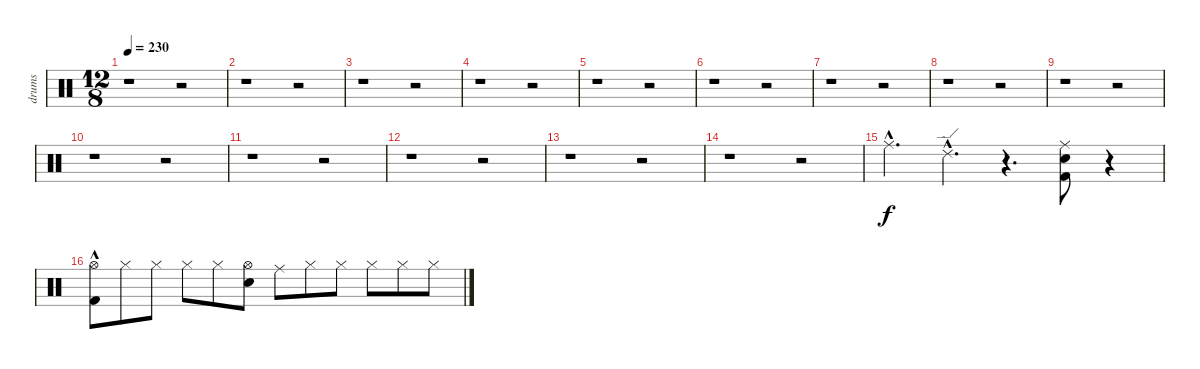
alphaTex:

\track ("drums" "drums") {instrument percussion}
\staff {score}
\articulation defaults
\ts (12 8)
\tempo 230
\clef neutral
\ks c
r.1{dy f} r.2 |
r.1 r.2 |
r.1 r.2 |
r.1 r.2 |
r.1 r.2 |
r.1 r.2 |
r.1 r.2 |
r.1 r.2 |
r.1 r.2 |
r.1 r.2 |
r.1 r.2 |
r.1 r.2 |
r.1 r.2 |
r.1 r.2 |
"Ride (middle)"{hac}.4{d} "Ride (edge) 2"{hac}.4{d} r.4{d} ("Ride (middle)" "Snare (hit) 2" "Kick (hit) 2").8 r.4 |
("Hi-Hat (open)"{hac} "Kick (hit) 2"{hac}).8 "Hi-Hat (closed)".8 "Hi-Hat (closed)".8 "Hi-Hat (closed)".8 "Hi-Hat (closed)".8 ("Snare (hit) 2" "Hi-Hat (open)").8 "Ride (middle)".8 "Hi-Hat (closed)".8 "Hi-Hat (closed)".8 "Hi-Hat (closed)".8 "Hi-Hat (closed)".8 "Hi-Hat (closed)".8
